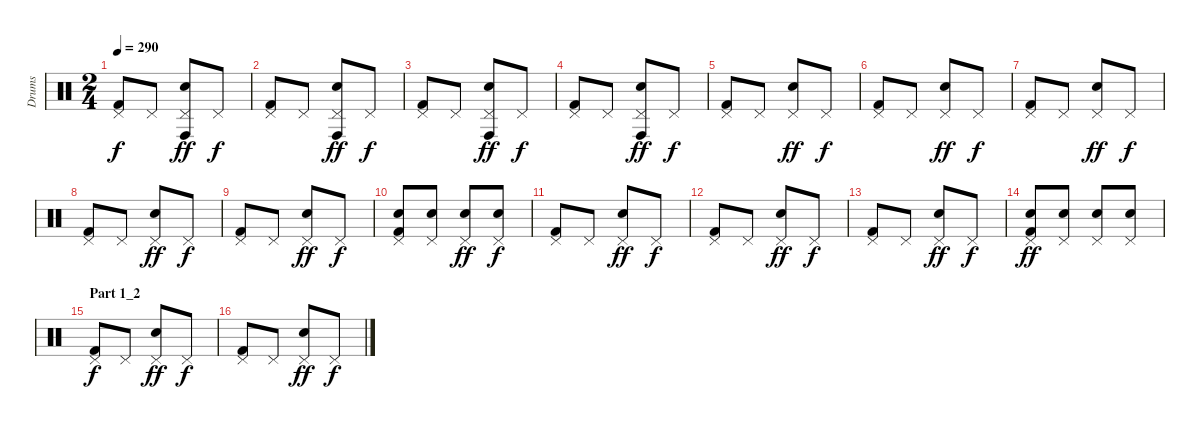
\track ("Drums" "Drums") {instrument percussion}
\staff {score}
\articulation defaults
\ts (2 4)
\tempo 290
\clef neutral
\ks c
("Pedal Hi-Hat (hit)" "Kick (hit) 2").8{dy f} "Pedal Hi-Hat (hit)".8 ("Pedal Hi-Hat (hit)" "Conga high (hit)" "Electric Snare (hit)").8{dy ff} "Pedal Hi-Hat (hit)".8{dy f} |
("Pedal Hi-Hat (hit)" "Kick (hit) 2").8 "Pedal Hi-Hat (hit)".8 ("Pedal Hi-Hat (hit)" "Conga high (hit)" "Electric Snare (hit)").8{dy ff} "Pedal Hi-Hat (hit)".8{dy f} |
("Pedal Hi-Hat (hit)" "Kick (hit) 2").8 "Pedal Hi-Hat (hit)".8 ("Pedal Hi-Hat (hit)" "Conga high (hit)" "Electric Snare (hit)").8{dy ff} "Pedal Hi-Hat (hit)".8{dy f} |
("Pedal Hi-Hat (hit)" "Kick (hit) 2").8 "Pedal Hi-Hat (hit)".8 ("Pedal Hi-Hat (hit)" "Conga high (hit)" "Electric Snare (hit)").8{dy ff} "Pedal Hi-Hat (hit)".8{dy f} |
("Pedal Hi-Hat (hit)" "Kick (hit) 2").8 "Pedal Hi-Hat (hit)".8 ("Pedal Hi-Hat (hit)" "Electric Snare (hit)").8{dy ff} "Pedal Hi-Hat (hit)".8{dy f} |
("Pedal Hi-Hat (hit)" "Kick (hit) 2").8 "Pedal Hi-Hat (hit)".8 ("Pedal Hi-Hat (hit)" "Electric Snare (hit)").8{dy ff} "Pedal Hi-Hat (hit)".8{dy f} |
("Pedal Hi-Hat (hit)" "Kick (hit) 2").8 "Pedal Hi-Hat (hit)".8 ("Pedal Hi-Hat (hit)" "Electric Snare (hit)").8{dy ff} "Pedal Hi-Hat (hit)".8{dy f} |
("Pedal Hi-Hat (hit)" "Kick (hit) 2").8 "Pedal Hi-Hat (hit)".8 ("Pedal Hi-Hat (hit)" "Electric Snare (hit)").8{dy ff} "Pedal Hi-Hat (hit)".8{dy f} |
("Pedal Hi-Hat (hit)" "Kick (hit) 2").8 "Pedal Hi-Hat (hit)".8 ("Pedal Hi-Hat (hit)" "Electric Snare (hit)").8{dy ff} "Pedal Hi-Hat (hit)".8{dy f} |
("Pedal Hi-Hat (hit)" "Electric Snare (hit)" "Kick (hit) 2").8 ("Pedal Hi-Hat (hit)" "Electric Snare (hit)").8 ("Pedal Hi-Hat (hit)" "Electric Snare (hit)").8{dy ff} ("Pedal Hi-Hat (hit)" "Electric Snare (hit)").8{dy f} |
("Pedal Hi-Hat (hit)" "Kick (hit) 2").8 "Pedal Hi-Hat (hit)".8 ("Pedal Hi-Hat (hit)" "Electric Snare (hit)").8{dy ff} "Pedal Hi-Hat (hit)".8{dy f} |
("Pedal Hi-Hat (hit)" "Kick (hit) 2").8 "Pedal Hi-Hat (hit)".8 ("Pedal Hi-Hat (hit)" "Electric Snare (hit)").8{dy ff} "Pedal Hi-Hat (hit)".8{dy f} |
("Pedal Hi-Hat (hit)" "Kick (hit) 2").8 "Pedal Hi-Hat (hit)".8 ("Pedal Hi-Hat (hit)" "Electric Snare (hit)").8{dy ff} "Pedal Hi-Hat (hit)".8{dy f} |
("Pedal Hi-Hat (hit)" "Electric Snare (hit)" "Kick (hit) 2").8{dy ff} ("Pedal Hi-Hat (hit)" "Electric Snare (hit)").8 ("Pedal Hi-Hat (hit)" "Electric Snare (hit)").8 ("Pedal Hi-Hat (hit)" "Electric Snare (hit)").8 |
\section ("" "Part 1_2")
("Pedal Hi-Hat (hit)" "Kick (hit) 2").8{dy f} "Pedal Hi-Hat (hit)".8 ("Pedal Hi-Hat (hit)" "Electric Snare (hit)").8{dy ff} "Pedal Hi-Hat (hit)".8{dy f} |
("Pedal Hi-Hat (hit)" "Kick (hit) 2").8 "Pedal Hi-Hat (hit)".8 ("Pedal Hi-Hat (hit)" "Electric Snare (hit)").8{dy ff} "Pedal Hi-Hat (hit)".8{dy f}
